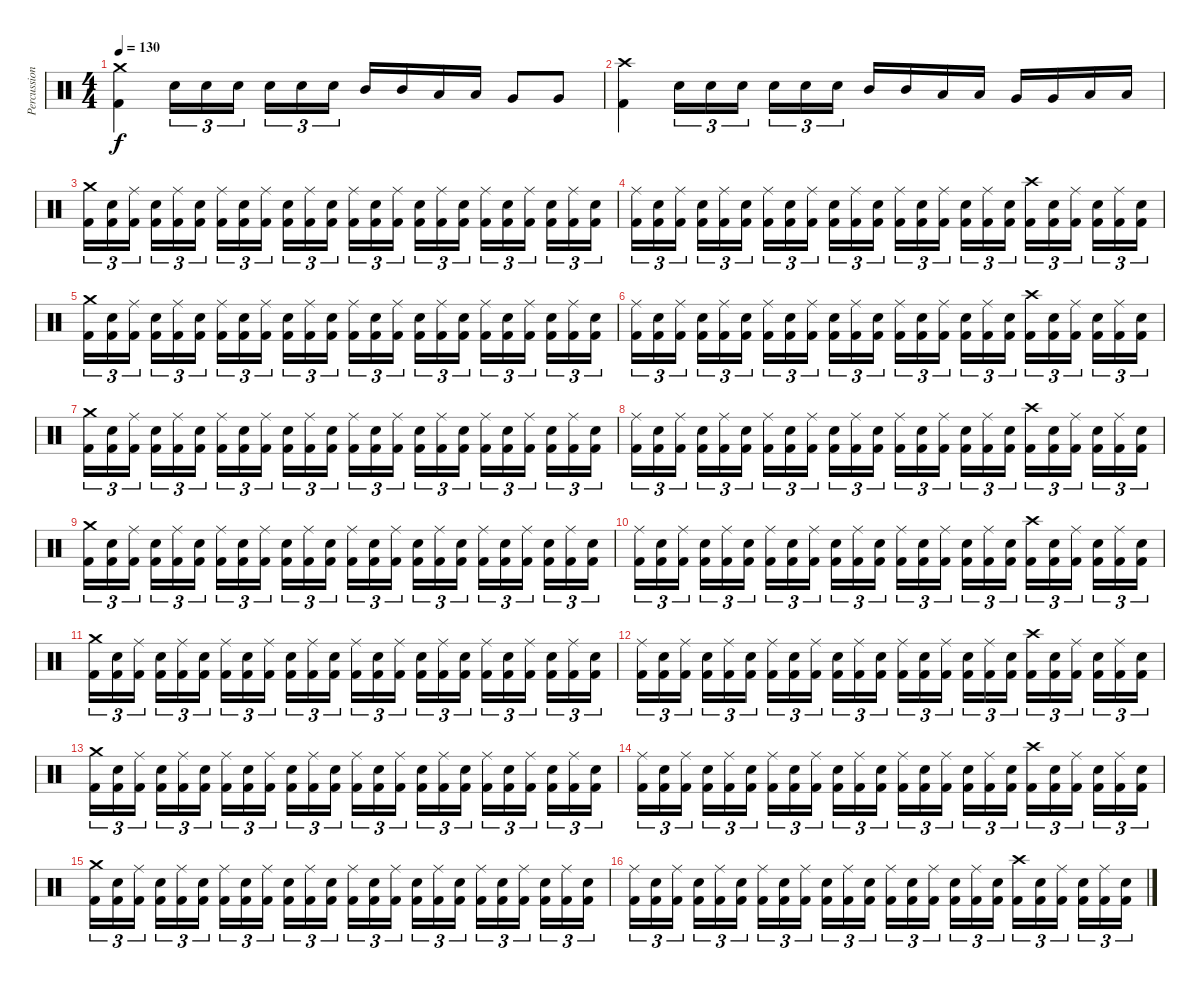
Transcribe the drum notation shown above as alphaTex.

\track ("Percussion" "Percussion") {instrument percussion}
\staff {score}
\articulation defaults
\ts (4 4)
\tempo 130
\clef neutral
\ks c
("Kick (hit) 2" "Crash medium (hit)").4{dy f} "Electric Snare (hit)".16{tu (3 2)} "Electric Snare (hit)".16{tu (3 2)} "Electric Snare (hit)".16{tu (3 2)} "Electric Snare (hit)".16{tu (3 2)} "Electric Snare (hit)".16{tu (3 2)} "Electric Snare (hit)".16{tu (3 2)} "Mid Tom (hit)".16 "Mid Tom (hit)".16 "Low Tom (hit)".16 "Low Tom (hit)".16 "Very Low Tom (hit)".8 "Very Low Tom (hit)".8 |
("Kick (hit) 2" "Crash high (hit)").4 "Electric Snare (hit)".16{tu (3 2)} "Electric Snare (hit)".16{tu (3 2)} "Electric Snare (hit)".16{tu (3 2)} "Electric Snare (hit)".16{tu (3 2)} "Electric Snare (hit)".16{tu (3 2)} "Electric Snare (hit)".16{tu (3 2)} "Mid Tom (hit)".16 "Mid Tom (hit)".16 "Low Tom (hit)".16 "Low Tom (hit)".16 "Very Low Tom (hit)".16 "Very Low Tom (hit)".16 "Low Floor Tom (hit)".16 "Low Floor Tom (hit)".16 |
("Kick (hit) 2" "Crash medium (hit)").16{tu (3 2)} ("Kick (hit) 2" "Electric Snare (hit)").16{tu (3 2)} ("Kick (hit) 2" "Ride (middle)").16{tu (3 2)} ("Kick (hit) 2" "Electric Snare (hit)").16{tu (3 2)} ("Kick (hit) 2" "Ride (middle)").16{tu (3 2)} ("Kick (hit) 2" "Electric Snare (hit)").16{tu (3 2)} ("Kick (hit) 2" "Ride (middle)").16{tu (3 2)} ("Kick (hit) 2" "Electric Snare (hit)").16{tu (3 2)} ("Kick (hit) 2" "Ride (middle)").16{tu (3 2)} ("Kick (hit) 2" "Electric Snare (hit)").16{tu (3 2)} ("Kick (hit) 2" "Ride (middle)").16{tu (3 2)} ("Kick (hit) 2" "Electric Snare (hit)").16{tu (3 2)} ("Kick (hit) 2" "Ride (middle)").16{tu (3 2)} ("Kick (hit) 2" "Electric Snare (hit)").16{tu (3 2)} ("Kick (hit) 2" "Ride (middle)").16{tu (3 2)} ("Kick (hit) 2" "Electric Snare (hit)").16{tu (3 2)} ("Kick (hit) 2" "Ride (middle)").16{tu (3 2)} ("Kick (hit) 2" "Electric Snare (hit)").16{tu (3 2)} ("Kick (hit) 2" "Ride (middle)").16{tu (3 2)} ("Kick (hit) 2" "Electric Snare (hit)").16{tu (3 2)} ("Kick (hit) 2" "Ride (middle)").16{tu (3 2)} ("Kick (hit) 2" "Electric Snare (hit)").16{tu (3 2)} ("Kick (hit) 2" "Ride (middle)").16{tu (3 2)} ("Kick (hit) 2" "Electric Snare (hit)").16{tu (3 2)} |
("Kick (hit) 2" "Ride (middle)").16{tu (3 2)} ("Kick (hit) 2" "Electric Snare (hit)").16{tu (3 2)} ("Kick (hit) 2" "Ride (middle)").16{tu (3 2)} ("Kick (hit) 2" "Electric Snare (hit)").16{tu (3 2)} ("Kick (hit) 2" "Ride (middle)").16{tu (3 2)} ("Kick (hit) 2" "Electric Snare (hit)").16{tu (3 2)} ("Kick (hit) 2" "Ride (middle)").16{tu (3 2)} ("Kick (hit) 2" "Electric Snare (hit)").16{tu (3 2)} ("Kick (hit) 2" "Ride (middle)").16{tu (3 2)} ("Kick (hit) 2" "Electric Snare (hit)").16{tu (3 2)} ("Kick (hit) 2" "Ride (middle)").16{tu (3 2)} ("Kick (hit) 2" "Electric Snare (hit)").16{tu (3 2)} ("Kick (hit) 2" "Ride (middle)").16{tu (3 2)} ("Kick (hit) 2" "Electric Snare (hit)").16{tu (3 2)} ("Kick (hit) 2" "Ride (middle)").16{tu (3 2)} ("Kick (hit) 2" "Electric Snare (hit)").16{tu (3 2)} ("Kick (hit) 2" "Ride (middle)").16{tu (3 2)} ("Kick (hit) 2" "Electric Snare (hit)").16{tu (3 2)} ("Kick (hit) 2" "Crash high (hit)").16{tu (3 2)} ("Kick (hit) 2" "Electric Snare (hit)").16{tu (3 2)} ("Kick (hit) 2" "Ride (middle)").16{tu (3 2)} ("Kick (hit) 2" "Electric Snare (hit)").16{tu (3 2)} ("Kick (hit) 2" "Ride (middle)").16{tu (3 2)} ("Kick (hit) 2" "Electric Snare (hit)").16{tu (3 2)} |
("Kick (hit) 2" "Crash medium (hit)").16{tu (3 2)} ("Kick (hit) 2" "Electric Snare (hit)").16{tu (3 2)} ("Kick (hit) 2" "Ride (middle)").16{tu (3 2)} ("Kick (hit) 2" "Electric Snare (hit)").16{tu (3 2)} ("Kick (hit) 2" "Ride (middle)").16{tu (3 2)} ("Kick (hit) 2" "Electric Snare (hit)").16{tu (3 2)} ("Kick (hit) 2" "Ride (middle)").16{tu (3 2)} ("Kick (hit) 2" "Electric Snare (hit)").16{tu (3 2)} ("Kick (hit) 2" "Ride (middle)").16{tu (3 2)} ("Kick (hit) 2" "Electric Snare (hit)").16{tu (3 2)} ("Kick (hit) 2" "Ride (middle)").16{tu (3 2)} ("Kick (hit) 2" "Electric Snare (hit)").16{tu (3 2)} ("Kick (hit) 2" "Ride (middle)").16{tu (3 2)} ("Kick (hit) 2" "Electric Snare (hit)").16{tu (3 2)} ("Kick (hit) 2" "Ride (middle)").16{tu (3 2)} ("Kick (hit) 2" "Electric Snare (hit)").16{tu (3 2)} ("Kick (hit) 2" "Ride (middle)").16{tu (3 2)} ("Kick (hit) 2" "Electric Snare (hit)").16{tu (3 2)} ("Kick (hit) 2" "Ride (middle)").16{tu (3 2)} ("Kick (hit) 2" "Electric Snare (hit)").16{tu (3 2)} ("Kick (hit) 2" "Ride (middle)").16{tu (3 2)} ("Kick (hit) 2" "Electric Snare (hit)").16{tu (3 2)} ("Kick (hit) 2" "Ride (middle)").16{tu (3 2)} ("Kick (hit) 2" "Electric Snare (hit)").16{tu (3 2)} |
("Kick (hit) 2" "Ride (middle)").16{tu (3 2)} ("Kick (hit) 2" "Electric Snare (hit)").16{tu (3 2)} ("Kick (hit) 2" "Ride (middle)").16{tu (3 2)} ("Kick (hit) 2" "Electric Snare (hit)").16{tu (3 2)} ("Kick (hit) 2" "Ride (middle)").16{tu (3 2)} ("Kick (hit) 2" "Electric Snare (hit)").16{tu (3 2)} ("Kick (hit) 2" "Ride (middle)").16{tu (3 2)} ("Kick (hit) 2" "Electric Snare (hit)").16{tu (3 2)} ("Kick (hit) 2" "Ride (middle)").16{tu (3 2)} ("Kick (hit) 2" "Electric Snare (hit)").16{tu (3 2)} ("Kick (hit) 2" "Ride (middle)").16{tu (3 2)} ("Kick (hit) 2" "Electric Snare (hit)").16{tu (3 2)} ("Kick (hit) 2" "Ride (middle)").16{tu (3 2)} ("Kick (hit) 2" "Electric Snare (hit)").16{tu (3 2)} ("Kick (hit) 2" "Ride (middle)").16{tu (3 2)} ("Kick (hit) 2" "Electric Snare (hit)").16{tu (3 2)} ("Kick (hit) 2" "Ride (middle)").16{tu (3 2)} ("Kick (hit) 2" "Electric Snare (hit)").16{tu (3 2)} ("Kick (hit) 2" "Crash high (hit)").16{tu (3 2)} ("Kick (hit) 2" "Electric Snare (hit)").16{tu (3 2)} ("Kick (hit) 2" "Ride (middle)").16{tu (3 2)} ("Kick (hit) 2" "Electric Snare (hit)").16{tu (3 2)} ("Kick (hit) 2" "Ride (middle)").16{tu (3 2)} ("Kick (hit) 2" "Electric Snare (hit)").16{tu (3 2)} |
("Kick (hit) 2" "Crash medium (hit)").16{tu (3 2)} ("Kick (hit) 2" "Electric Snare (hit)").16{tu (3 2)} ("Kick (hit) 2" "Ride (middle)").16{tu (3 2)} ("Kick (hit) 2" "Electric Snare (hit)").16{tu (3 2)} ("Kick (hit) 2" "Ride (middle)").16{tu (3 2)} ("Kick (hit) 2" "Electric Snare (hit)").16{tu (3 2)} ("Kick (hit) 2" "Ride (middle)").16{tu (3 2)} ("Kick (hit) 2" "Electric Snare (hit)").16{tu (3 2)} ("Kick (hit) 2" "Ride (middle)").16{tu (3 2)} ("Kick (hit) 2" "Electric Snare (hit)").16{tu (3 2)} ("Kick (hit) 2" "Ride (middle)").16{tu (3 2)} ("Kick (hit) 2" "Electric Snare (hit)").16{tu (3 2)} ("Kick (hit) 2" "Ride (middle)").16{tu (3 2)} ("Kick (hit) 2" "Electric Snare (hit)").16{tu (3 2)} ("Kick (hit) 2" "Ride (middle)").16{tu (3 2)} ("Kick (hit) 2" "Electric Snare (hit)").16{tu (3 2)} ("Kick (hit) 2" "Ride (middle)").16{tu (3 2)} ("Kick (hit) 2" "Electric Snare (hit)").16{tu (3 2)} ("Kick (hit) 2" "Ride (middle)").16{tu (3 2)} ("Kick (hit) 2" "Electric Snare (hit)").16{tu (3 2)} ("Kick (hit) 2" "Ride (middle)").16{tu (3 2)} ("Kick (hit) 2" "Electric Snare (hit)").16{tu (3 2)} ("Kick (hit) 2" "Ride (middle)").16{tu (3 2)} ("Kick (hit) 2" "Electric Snare (hit)").16{tu (3 2)} |
("Kick (hit) 2" "Ride (middle)").16{tu (3 2)} ("Kick (hit) 2" "Electric Snare (hit)").16{tu (3 2)} ("Kick (hit) 2" "Ride (middle)").16{tu (3 2)} ("Kick (hit) 2" "Electric Snare (hit)").16{tu (3 2)} ("Kick (hit) 2" "Ride (middle)").16{tu (3 2)} ("Kick (hit) 2" "Electric Snare (hit)").16{tu (3 2)} ("Kick (hit) 2" "Ride (middle)").16{tu (3 2)} ("Kick (hit) 2" "Electric Snare (hit)").16{tu (3 2)} ("Kick (hit) 2" "Ride (middle)").16{tu (3 2)} ("Kick (hit) 2" "Electric Snare (hit)").16{tu (3 2)} ("Kick (hit) 2" "Ride (middle)").16{tu (3 2)} ("Kick (hit) 2" "Electric Snare (hit)").16{tu (3 2)} ("Kick (hit) 2" "Ride (middle)").16{tu (3 2)} ("Kick (hit) 2" "Electric Snare (hit)").16{tu (3 2)} ("Kick (hit) 2" "Ride (middle)").16{tu (3 2)} ("Kick (hit) 2" "Electric Snare (hit)").16{tu (3 2)} ("Kick (hit) 2" "Ride (middle)").16{tu (3 2)} ("Kick (hit) 2" "Electric Snare (hit)").16{tu (3 2)} ("Kick (hit) 2" "Crash high (hit)").16{tu (3 2)} ("Kick (hit) 2" "Electric Snare (hit)").16{tu (3 2)} ("Kick (hit) 2" "Ride (middle)").16{tu (3 2)} ("Kick (hit) 2" "Electric Snare (hit)").16{tu (3 2)} ("Kick (hit) 2" "Ride (middle)").16{tu (3 2)} ("Kick (hit) 2" "Electric Snare (hit)").16{tu (3 2)} |
("Kick (hit) 2" "Crash medium (hit)").16{tu (3 2)} ("Kick (hit) 2" "Electric Snare (hit)").16{tu (3 2)} ("Kick (hit) 2" "Ride (middle)").16{tu (3 2)} ("Kick (hit) 2" "Electric Snare (hit)").16{tu (3 2)} ("Kick (hit) 2" "Ride (middle)").16{tu (3 2)} ("Kick (hit) 2" "Electric Snare (hit)").16{tu (3 2)} ("Kick (hit) 2" "Ride (middle)").16{tu (3 2)} ("Kick (hit) 2" "Electric Snare (hit)").16{tu (3 2)} ("Kick (hit) 2" "Ride (middle)").16{tu (3 2)} ("Kick (hit) 2" "Electric Snare (hit)").16{tu (3 2)} ("Kick (hit) 2" "Ride (middle)").16{tu (3 2)} ("Kick (hit) 2" "Electric Snare (hit)").16{tu (3 2)} ("Kick (hit) 2" "Ride (middle)").16{tu (3 2)} ("Kick (hit) 2" "Electric Snare (hit)").16{tu (3 2)} ("Kick (hit) 2" "Ride (middle)").16{tu (3 2)} ("Kick (hit) 2" "Electric Snare (hit)").16{tu (3 2)} ("Kick (hit) 2" "Ride (middle)").16{tu (3 2)} ("Kick (hit) 2" "Electric Snare (hit)").16{tu (3 2)} ("Kick (hit) 2" "Ride (middle)").16{tu (3 2)} ("Kick (hit) 2" "Electric Snare (hit)").16{tu (3 2)} ("Kick (hit) 2" "Ride (middle)").16{tu (3 2)} ("Kick (hit) 2" "Electric Snare (hit)").16{tu (3 2)} ("Kick (hit) 2" "Ride (middle)").16{tu (3 2)} ("Kick (hit) 2" "Electric Snare (hit)").16{tu (3 2)} |
("Kick (hit) 2" "Ride (middle)").16{tu (3 2)} ("Kick (hit) 2" "Electric Snare (hit)").16{tu (3 2)} ("Kick (hit) 2" "Ride (middle)").16{tu (3 2)} ("Kick (hit) 2" "Electric Snare (hit)").16{tu (3 2)} ("Kick (hit) 2" "Ride (middle)").16{tu (3 2)} ("Kick (hit) 2" "Electric Snare (hit)").16{tu (3 2)} ("Kick (hit) 2" "Ride (middle)").16{tu (3 2)} ("Kick (hit) 2" "Electric Snare (hit)").16{tu (3 2)} ("Kick (hit) 2" "Ride (middle)").16{tu (3 2)} ("Kick (hit) 2" "Electric Snare (hit)").16{tu (3 2)} ("Kick (hit) 2" "Ride (middle)").16{tu (3 2)} ("Kick (hit) 2" "Electric Snare (hit)").16{tu (3 2)} ("Kick (hit) 2" "Ride (middle)").16{tu (3 2)} ("Kick (hit) 2" "Electric Snare (hit)").16{tu (3 2)} ("Kick (hit) 2" "Ride (middle)").16{tu (3 2)} ("Kick (hit) 2" "Electric Snare (hit)").16{tu (3 2)} ("Kick (hit) 2" "Ride (middle)").16{tu (3 2)} ("Kick (hit) 2" "Electric Snare (hit)").16{tu (3 2)} ("Kick (hit) 2" "Crash high (hit)").16{tu (3 2)} ("Kick (hit) 2" "Electric Snare (hit)").16{tu (3 2)} ("Kick (hit) 2" "Ride (middle)").16{tu (3 2)} ("Kick (hit) 2" "Electric Snare (hit)").16{tu (3 2)} ("Kick (hit) 2" "Ride (middle)").16{tu (3 2)} ("Kick (hit) 2" "Electric Snare (hit)").16{tu (3 2)} |
("Kick (hit) 2" "Crash medium (hit)").16{tu (3 2)} ("Kick (hit) 2" "Electric Snare (hit)").16{tu (3 2)} ("Kick (hit) 2" "Ride (middle)").16{tu (3 2)} ("Kick (hit) 2" "Electric Snare (hit)").16{tu (3 2)} ("Kick (hit) 2" "Ride (middle)").16{tu (3 2)} ("Kick (hit) 2" "Electric Snare (hit)").16{tu (3 2)} ("Kick (hit) 2" "Ride (middle)").16{tu (3 2)} ("Kick (hit) 2" "Electric Snare (hit)").16{tu (3 2)} ("Kick (hit) 2" "Ride (middle)").16{tu (3 2)} ("Kick (hit) 2" "Electric Snare (hit)").16{tu (3 2)} ("Kick (hit) 2" "Ride (middle)").16{tu (3 2)} ("Kick (hit) 2" "Electric Snare (hit)").16{tu (3 2)} ("Kick (hit) 2" "Ride (middle)").16{tu (3 2)} ("Kick (hit) 2" "Electric Snare (hit)").16{tu (3 2)} ("Kick (hit) 2" "Ride (middle)").16{tu (3 2)} ("Kick (hit) 2" "Electric Snare (hit)").16{tu (3 2)} ("Kick (hit) 2" "Ride (middle)").16{tu (3 2)} ("Kick (hit) 2" "Electric Snare (hit)").16{tu (3 2)} ("Kick (hit) 2" "Ride (middle)").16{tu (3 2)} ("Kick (hit) 2" "Electric Snare (hit)").16{tu (3 2)} ("Kick (hit) 2" "Ride (middle)").16{tu (3 2)} ("Kick (hit) 2" "Electric Snare (hit)").16{tu (3 2)} ("Kick (hit) 2" "Ride (middle)").16{tu (3 2)} ("Kick (hit) 2" "Electric Snare (hit)").16{tu (3 2)} |
("Kick (hit) 2" "Ride (middle)").16{tu (3 2)} ("Kick (hit) 2" "Electric Snare (hit)").16{tu (3 2)} ("Kick (hit) 2" "Ride (middle)").16{tu (3 2)} ("Kick (hit) 2" "Electric Snare (hit)").16{tu (3 2)} ("Kick (hit) 2" "Ride (middle)").16{tu (3 2)} ("Kick (hit) 2" "Electric Snare (hit)").16{tu (3 2)} ("Kick (hit) 2" "Ride (middle)").16{tu (3 2)} ("Kick (hit) 2" "Electric Snare (hit)").16{tu (3 2)} ("Kick (hit) 2" "Ride (middle)").16{tu (3 2)} ("Kick (hit) 2" "Electric Snare (hit)").16{tu (3 2)} ("Kick (hit) 2" "Ride (middle)").16{tu (3 2)} ("Kick (hit) 2" "Electric Snare (hit)").16{tu (3 2)} ("Kick (hit) 2" "Ride (middle)").16{tu (3 2)} ("Kick (hit) 2" "Electric Snare (hit)").16{tu (3 2)} ("Kick (hit) 2" "Ride (middle)").16{tu (3 2)} ("Kick (hit) 2" "Electric Snare (hit)").16{tu (3 2)} ("Kick (hit) 2" "Ride (middle)").16{tu (3 2)} ("Kick (hit) 2" "Electric Snare (hit)").16{tu (3 2)} ("Kick (hit) 2" "Crash high (hit)").16{tu (3 2)} ("Kick (hit) 2" "Electric Snare (hit)").16{tu (3 2)} ("Kick (hit) 2" "Ride (middle)").16{tu (3 2)} ("Kick (hit) 2" "Electric Snare (hit)").16{tu (3 2)} ("Kick (hit) 2" "Ride (middle)").16{tu (3 2)} ("Kick (hit) 2" "Electric Snare (hit)").16{tu (3 2)} |
("Kick (hit) 2" "Crash medium (hit)").16{tu (3 2)} ("Kick (hit) 2" "Electric Snare (hit)").16{tu (3 2)} ("Kick (hit) 2" "Ride (middle)").16{tu (3 2)} ("Kick (hit) 2" "Electric Snare (hit)").16{tu (3 2)} ("Kick (hit) 2" "Ride (middle)").16{tu (3 2)} ("Kick (hit) 2" "Electric Snare (hit)").16{tu (3 2)} ("Kick (hit) 2" "Ride (middle)").16{tu (3 2)} ("Kick (hit) 2" "Electric Snare (hit)").16{tu (3 2)} ("Kick (hit) 2" "Ride (middle)").16{tu (3 2)} ("Kick (hit) 2" "Electric Snare (hit)").16{tu (3 2)} ("Kick (hit) 2" "Ride (middle)").16{tu (3 2)} ("Kick (hit) 2" "Electric Snare (hit)").16{tu (3 2)} ("Kick (hit) 2" "Ride (middle)").16{tu (3 2)} ("Kick (hit) 2" "Electric Snare (hit)").16{tu (3 2)} ("Kick (hit) 2" "Ride (middle)").16{tu (3 2)} ("Kick (hit) 2" "Electric Snare (hit)").16{tu (3 2)} ("Kick (hit) 2" "Ride (middle)").16{tu (3 2)} ("Kick (hit) 2" "Electric Snare (hit)").16{tu (3 2)} ("Kick (hit) 2" "Ride (middle)").16{tu (3 2)} ("Kick (hit) 2" "Electric Snare (hit)").16{tu (3 2)} ("Kick (hit) 2" "Ride (middle)").16{tu (3 2)} ("Kick (hit) 2" "Electric Snare (hit)").16{tu (3 2)} ("Kick (hit) 2" "Ride (middle)").16{tu (3 2)} ("Kick (hit) 2" "Electric Snare (hit)").16{tu (3 2)} |
("Kick (hit) 2" "Ride (middle)").16{tu (3 2)} ("Kick (hit) 2" "Electric Snare (hit)").16{tu (3 2)} ("Kick (hit) 2" "Ride (middle)").16{tu (3 2)} ("Kick (hit) 2" "Electric Snare (hit)").16{tu (3 2)} ("Kick (hit) 2" "Ride (middle)").16{tu (3 2)} ("Kick (hit) 2" "Electric Snare (hit)").16{tu (3 2)} ("Kick (hit) 2" "Ride (middle)").16{tu (3 2)} ("Kick (hit) 2" "Electric Snare (hit)").16{tu (3 2)} ("Kick (hit) 2" "Ride (middle)").16{tu (3 2)} ("Kick (hit) 2" "Electric Snare (hit)").16{tu (3 2)} ("Kick (hit) 2" "Ride (middle)").16{tu (3 2)} ("Kick (hit) 2" "Electric Snare (hit)").16{tu (3 2)} ("Kick (hit) 2" "Ride (middle)").16{tu (3 2)} ("Kick (hit) 2" "Electric Snare (hit)").16{tu (3 2)} ("Kick (hit) 2" "Ride (middle)").16{tu (3 2)} ("Kick (hit) 2" "Electric Snare (hit)").16{tu (3 2)} ("Kick (hit) 2" "Ride (middle)").16{tu (3 2)} ("Kick (hit) 2" "Electric Snare (hit)").16{tu (3 2)} ("Kick (hit) 2" "Crash high (hit)").16{tu (3 2)} ("Kick (hit) 2" "Electric Snare (hit)").16{tu (3 2)} ("Kick (hit) 2" "Ride (middle)").16{tu (3 2)} ("Kick (hit) 2" "Electric Snare (hit)").16{tu (3 2)} ("Kick (hit) 2" "Ride (middle)").16{tu (3 2)} ("Kick (hit) 2" "Electric Snare (hit)").16{tu (3 2)} |
("Kick (hit) 2" "Crash medium (hit)").16{tu (3 2)} ("Kick (hit) 2" "Electric Snare (hit)").16{tu (3 2)} ("Kick (hit) 2" "Ride (middle)").16{tu (3 2)} ("Kick (hit) 2" "Electric Snare (hit)").16{tu (3 2)} ("Kick (hit) 2" "Ride (middle)").16{tu (3 2)} ("Kick (hit) 2" "Electric Snare (hit)").16{tu (3 2)} ("Kick (hit) 2" "Ride (middle)").16{tu (3 2)} ("Kick (hit) 2" "Electric Snare (hit)").16{tu (3 2)} ("Kick (hit) 2" "Ride (middle)").16{tu (3 2)} ("Kick (hit) 2" "Electric Snare (hit)").16{tu (3 2)} ("Kick (hit) 2" "Ride (middle)").16{tu (3 2)} ("Kick (hit) 2" "Electric Snare (hit)").16{tu (3 2)} ("Kick (hit) 2" "Ride (middle)").16{tu (3 2)} ("Kick (hit) 2" "Electric Snare (hit)").16{tu (3 2)} ("Kick (hit) 2" "Ride (middle)").16{tu (3 2)} ("Kick (hit) 2" "Electric Snare (hit)").16{tu (3 2)} ("Kick (hit) 2" "Ride (middle)").16{tu (3 2)} ("Kick (hit) 2" "Electric Snare (hit)").16{tu (3 2)} ("Kick (hit) 2" "Ride (middle)").16{tu (3 2)} ("Kick (hit) 2" "Electric Snare (hit)").16{tu (3 2)} ("Kick (hit) 2" "Ride (middle)").16{tu (3 2)} ("Kick (hit) 2" "Electric Snare (hit)").16{tu (3 2)} ("Kick (hit) 2" "Ride (middle)").16{tu (3 2)} ("Kick (hit) 2" "Electric Snare (hit)").16{tu (3 2)} |
("Kick (hit) 2" "Ride (middle)").16{tu (3 2)} ("Kick (hit) 2" "Electric Snare (hit)").16{tu (3 2)} ("Kick (hit) 2" "Ride (middle)").16{tu (3 2)} ("Kick (hit) 2" "Electric Snare (hit)").16{tu (3 2)} ("Kick (hit) 2" "Ride (middle)").16{tu (3 2)} ("Kick (hit) 2" "Electric Snare (hit)").16{tu (3 2)} ("Kick (hit) 2" "Ride (middle)").16{tu (3 2)} ("Kick (hit) 2" "Electric Snare (hit)").16{tu (3 2)} ("Kick (hit) 2" "Ride (middle)").16{tu (3 2)} ("Kick (hit) 2" "Electric Snare (hit)").16{tu (3 2)} ("Kick (hit) 2" "Ride (middle)").16{tu (3 2)} ("Kick (hit) 2" "Electric Snare (hit)").16{tu (3 2)} ("Kick (hit) 2" "Ride (middle)").16{tu (3 2)} ("Kick (hit) 2" "Electric Snare (hit)").16{tu (3 2)} ("Kick (hit) 2" "Ride (middle)").16{tu (3 2)} ("Kick (hit) 2" "Electric Snare (hit)").16{tu (3 2)} ("Kick (hit) 2" "Ride (middle)").16{tu (3 2)} ("Kick (hit) 2" "Electric Snare (hit)").16{tu (3 2)} ("Kick (hit) 2" "Crash high (hit)").16{tu (3 2)} ("Kick (hit) 2" "Electric Snare (hit)").16{tu (3 2)} ("Kick (hit) 2" "Ride (middle)").16{tu (3 2)} ("Kick (hit) 2" "Electric Snare (hit)").16{tu (3 2)} ("Kick (hit) 2" "Ride (middle)").16{tu (3 2)} ("Kick (hit) 2" "Electric Snare (hit)").16{tu (3 2)}
